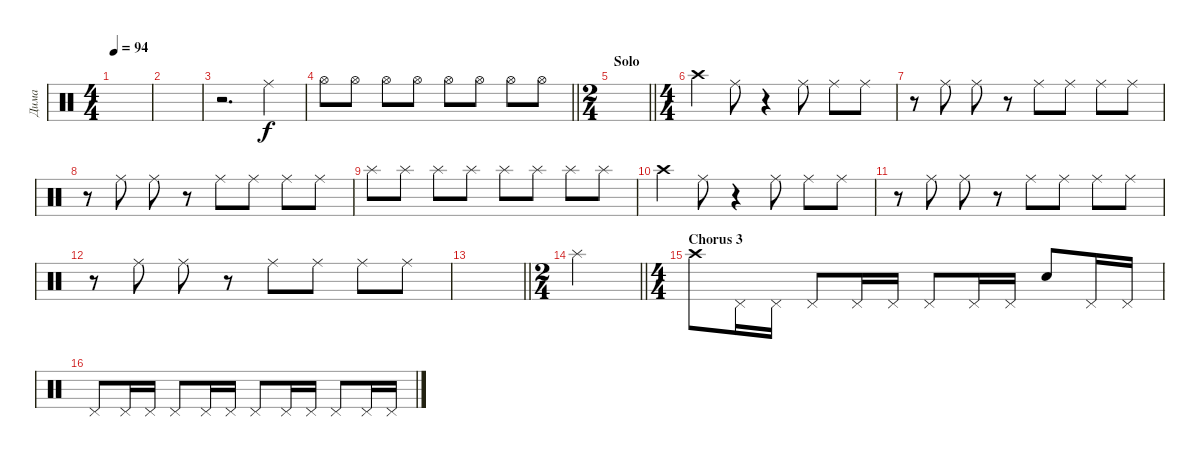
\track ("Дима" "Дима") {instrument percussion}
\staff {score}
\articulation defaults
\ts (4 4)
\tempo 94
\clef neutral
\ks c
|
|
r.2{d} "Ride (middle)".4 |
\barLineRight lightlight "Hi-Hat (open)".8 "Hi-Hat (open)".8 "Hi-Hat (open)".8 "Hi-Hat (open)".8 "Hi-Hat (open)".8 "Hi-Hat (open)".8 "Hi-Hat (open)".8 "Hi-Hat (open)".8
|
\ts (2 4)
\section ("" "Solo")
\barLineRight lightlight
|
\ts (4 4)
"Crash high (hit)".4 "Ride (middle)".8 r.4 "Ride (middle)".8 "Ride (middle)".8 "Ride (middle)".8 |
r.8 "Ride (middle)".8 "Ride (middle)".8 r.8 "Ride (middle)".8 "Ride (middle)".8 "Ride (middle)".8 "Ride (middle)".8 |
r.8 "Ride (middle)".8 "Ride (middle)".8 r.8 "Ride (middle)".8 "Ride (middle)".8 "Ride (middle)".8 "Ride (middle)".8 |
"Splash (hit)".8 "Splash (hit)".8 "Splash (hit)".8 "Splash (hit)".8 "Splash (hit)".8 "Splash (hit)".8 "Splash (hit)".8 "Splash (hit)".8 |
"Crash high (hit)".4 "Ride (middle)".8 r.4 "Ride (middle)".8 "Ride (middle)".8 "Ride (middle)".8 |
r.8 "Ride (middle)".8 "Ride (middle)".8 r.8 "Ride (middle)".8 "Ride (middle)".8 "Ride (middle)".8 "Ride (middle)".8 |
r.8 "Ride (middle)".8 "Ride (middle)".8 r.8 "Ride (middle)".8 "Ride (middle)".8 "Ride (middle)".8 "Ride (middle)".8 |
\barLineRight lightlight
|
\ts (2 4)
\barLineRight lightlight "Splash (hit)".2
|
\ts (4 4)
\section ("" "Chorus 3")
"Crash high (hit)".8 "Pedal Hi-Hat (hit)".16 "Pedal Hi-Hat (hit)".16 "Pedal Hi-Hat (hit)".8 "Pedal Hi-Hat (hit)".16 "Pedal Hi-Hat (hit)".16 "Pedal Hi-Hat (hit)".8 "Pedal Hi-Hat (hit)".16 "Pedal Hi-Hat (hit)".16 "Snare (hit)".8 "Pedal Hi-Hat (hit)".16 "Pedal Hi-Hat (hit)".16 |
"Pedal Hi-Hat (hit)".8 "Pedal Hi-Hat (hit)".16 "Pedal Hi-Hat (hit)".16 "Pedal Hi-Hat (hit)".8 "Pedal Hi-Hat (hit)".16 "Pedal Hi-Hat (hit)".16 "Pedal Hi-Hat (hit)".8 "Pedal Hi-Hat (hit)".16 "Pedal Hi-Hat (hit)".16 "Pedal Hi-Hat (hit)".8 "Pedal Hi-Hat (hit)".16 "Pedal Hi-Hat (hit)".16
